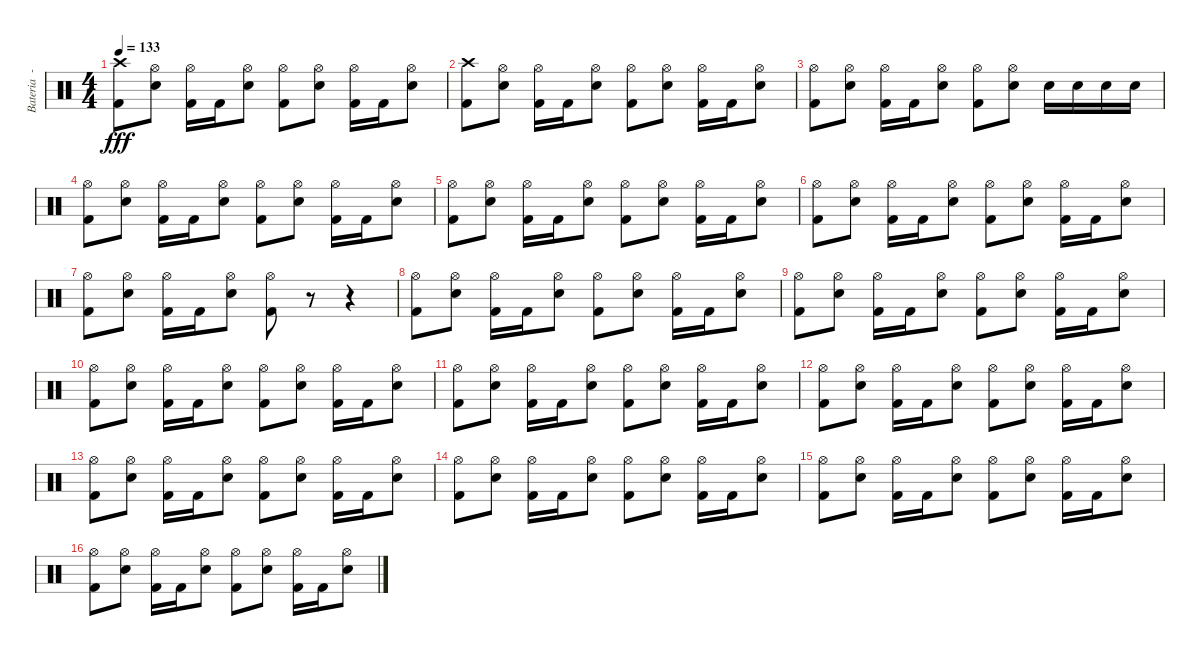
\track ("Bateria  - Larzon" "Bateria  -") {instrument percussion}
\staff {score}
\articulation defaults
\ts (4 4)
\tempo 133
\clef neutral
\ks c
("Kick (hit) 2" "Crash high (hit)").8{dy fff} ("Electric Snare (hit)" "Hi-Hat (open)").8 ("Kick (hit) 2" "Hi-Hat (open)").16 "Kick (hit) 2".16 ("Electric Snare (hit)" "Hi-Hat (open)").8 ("Kick (hit) 2" "Hi-Hat (open)").8 ("Electric Snare (hit)" "Hi-Hat (open)").8 ("Kick (hit) 2" "Hi-Hat (open)").16 "Kick (hit) 2".16 ("Electric Snare (hit)" "Hi-Hat (open)").8 |
("Kick (hit) 2" "Crash high (hit)").8 ("Electric Snare (hit)" "Hi-Hat (open)").8 ("Kick (hit) 2" "Hi-Hat (open)").16 "Kick (hit) 2".16 ("Electric Snare (hit)" "Hi-Hat (open)").8 ("Kick (hit) 2" "Hi-Hat (open)").8 ("Electric Snare (hit)" "Hi-Hat (open)").8 ("Kick (hit) 2" "Hi-Hat (open)").16 "Kick (hit) 2".16 ("Electric Snare (hit)" "Hi-Hat (open)").8 |
("Kick (hit) 2" "Hi-Hat (open)").8 ("Electric Snare (hit)" "Hi-Hat (open)").8 ("Kick (hit) 2" "Hi-Hat (open)").16 "Kick (hit) 2".16 ("Electric Snare (hit)" "Hi-Hat (open)").8 ("Kick (hit) 2" "Hi-Hat (open)").8 ("Electric Snare (hit)" "Hi-Hat (open)").8 "Electric Snare (hit)".16 "Electric Snare (hit)".16 "Electric Snare (hit)".16 "Electric Snare (hit)".16 |
("Kick (hit) 2" "Hi-Hat (open)").8 ("Electric Snare (hit)" "Hi-Hat (open)").8 ("Kick (hit) 2" "Hi-Hat (open)").16 "Kick (hit) 2".16 ("Electric Snare (hit)" "Hi-Hat (open)").8 ("Kick (hit) 2" "Hi-Hat (open)").8 ("Electric Snare (hit)" "Hi-Hat (open)").8 ("Kick (hit) 2" "Hi-Hat (open)").16 "Kick (hit) 2".16 ("Electric Snare (hit)" "Hi-Hat (open)").8 |
("Kick (hit) 2" "Hi-Hat (open)").8 ("Electric Snare (hit)" "Hi-Hat (open)").8 ("Kick (hit) 2" "Hi-Hat (open)").16 "Kick (hit) 2".16 ("Electric Snare (hit)" "Hi-Hat (open)").8 ("Kick (hit) 2" "Hi-Hat (open)").8 ("Electric Snare (hit)" "Hi-Hat (open)").8 ("Kick (hit) 2" "Hi-Hat (open)").16 "Kick (hit) 2".16 ("Electric Snare (hit)" "Hi-Hat (open)").8 |
("Kick (hit) 2" "Hi-Hat (open)").8 ("Electric Snare (hit)" "Hi-Hat (open)").8 ("Kick (hit) 2" "Hi-Hat (open)").16 "Kick (hit) 2".16 ("Electric Snare (hit)" "Hi-Hat (open)").8 ("Kick (hit) 2" "Hi-Hat (open)").8 ("Electric Snare (hit)" "Hi-Hat (open)").8 ("Kick (hit) 2" "Hi-Hat (open)").16 "Kick (hit) 2".16 ("Electric Snare (hit)" "Hi-Hat (open)").8 |
("Kick (hit) 2" "Hi-Hat (open)").8 ("Electric Snare (hit)" "Hi-Hat (open)").8 ("Kick (hit) 2" "Hi-Hat (open)").16 "Kick (hit) 2".16 ("Electric Snare (hit)" "Hi-Hat (open)").8 ("Kick (hit) 2" "Hi-Hat (open)").8 r.8 r.4 |
("Kick (hit) 2" "Hi-Hat (open)").8 ("Electric Snare (hit)" "Hi-Hat (open)").8 ("Kick (hit) 2" "Hi-Hat (open)").16 "Kick (hit) 2".16 ("Electric Snare (hit)" "Hi-Hat (open)").8 ("Kick (hit) 2" "Hi-Hat (open)").8 ("Electric Snare (hit)" "Hi-Hat (open)").8 ("Kick (hit) 2" "Hi-Hat (open)").16 "Kick (hit) 2".16 ("Electric Snare (hit)" "Hi-Hat (open)").8 |
("Kick (hit) 2" "Hi-Hat (open)").8 ("Electric Snare (hit)" "Hi-Hat (open)").8 ("Kick (hit) 2" "Hi-Hat (open)").16 "Kick (hit) 2".16 ("Electric Snare (hit)" "Hi-Hat (open)").8 ("Kick (hit) 2" "Hi-Hat (open)").8 ("Electric Snare (hit)" "Hi-Hat (open)").8 ("Kick (hit) 2" "Hi-Hat (open)").16 "Kick (hit) 2".16 ("Electric Snare (hit)" "Hi-Hat (open)").8 |
("Kick (hit) 2" "Hi-Hat (open)").8 ("Electric Snare (hit)" "Hi-Hat (open)").8 ("Kick (hit) 2" "Hi-Hat (open)").16 "Kick (hit) 2".16 ("Electric Snare (hit)" "Hi-Hat (open)").8 ("Kick (hit) 2" "Hi-Hat (open)").8 ("Electric Snare (hit)" "Hi-Hat (open)").8 ("Kick (hit) 2" "Hi-Hat (open)").16 "Kick (hit) 2".16 ("Electric Snare (hit)" "Hi-Hat (open)").8 |
("Kick (hit) 2" "Hi-Hat (open)").8 ("Electric Snare (hit)" "Hi-Hat (open)").8 ("Kick (hit) 2" "Hi-Hat (open)").16 "Kick (hit) 2".16 ("Electric Snare (hit)" "Hi-Hat (open)").8 ("Kick (hit) 2" "Hi-Hat (open)").8 ("Electric Snare (hit)" "Hi-Hat (open)").8 ("Kick (hit) 2" "Hi-Hat (open)").16 "Kick (hit) 2".16 ("Electric Snare (hit)" "Hi-Hat (open)").8 |
("Kick (hit) 2" "Hi-Hat (open)").8 ("Electric Snare (hit)" "Hi-Hat (open)").8 ("Kick (hit) 2" "Hi-Hat (open)").16 "Kick (hit) 2".16 ("Electric Snare (hit)" "Hi-Hat (open)").8 ("Kick (hit) 2" "Hi-Hat (open)").8 ("Electric Snare (hit)" "Hi-Hat (open)").8 ("Kick (hit) 2" "Hi-Hat (open)").16 "Kick (hit) 2".16 ("Electric Snare (hit)" "Hi-Hat (open)").8 |
("Kick (hit) 2" "Hi-Hat (open)").8 ("Electric Snare (hit)" "Hi-Hat (open)").8 ("Kick (hit) 2" "Hi-Hat (open)").16 "Kick (hit) 2".16 ("Electric Snare (hit)" "Hi-Hat (open)").8 ("Kick (hit) 2" "Hi-Hat (open)").8 ("Electric Snare (hit)" "Hi-Hat (open)").8 ("Kick (hit) 2" "Hi-Hat (open)").16 "Kick (hit) 2".16 ("Electric Snare (hit)" "Hi-Hat (open)").8 |
("Kick (hit) 2" "Hi-Hat (open)").8 ("Electric Snare (hit)" "Hi-Hat (open)").8 ("Kick (hit) 2" "Hi-Hat (open)").16 "Kick (hit) 2".16 ("Electric Snare (hit)" "Hi-Hat (open)").8 ("Kick (hit) 2" "Hi-Hat (open)").8 ("Electric Snare (hit)" "Hi-Hat (open)").8 ("Kick (hit) 2" "Hi-Hat (open)").16 "Kick (hit) 2".16 ("Electric Snare (hit)" "Hi-Hat (open)").8 |
("Kick (hit) 2" "Hi-Hat (open)").8 ("Electric Snare (hit)" "Hi-Hat (open)").8 ("Kick (hit) 2" "Hi-Hat (open)").16 "Kick (hit) 2".16 ("Electric Snare (hit)" "Hi-Hat (open)").8 ("Kick (hit) 2" "Hi-Hat (open)").8 ("Electric Snare (hit)" "Hi-Hat (open)").8 ("Kick (hit) 2" "Hi-Hat (open)").16 "Kick (hit) 2".16 ("Electric Snare (hit)" "Hi-Hat (open)").8 |
("Kick (hit) 2" "Hi-Hat (open)").8 ("Electric Snare (hit)" "Hi-Hat (open)").8 ("Kick (hit) 2" "Hi-Hat (open)").16 "Kick (hit) 2".16 ("Electric Snare (hit)" "Hi-Hat (open)").8 ("Kick (hit) 2" "Hi-Hat (open)").8 ("Electric Snare (hit)" "Hi-Hat (open)").8 ("Kick (hit) 2" "Hi-Hat (open)").16 "Kick (hit) 2".16 ("Electric Snare (hit)" "Hi-Hat (open)").8
